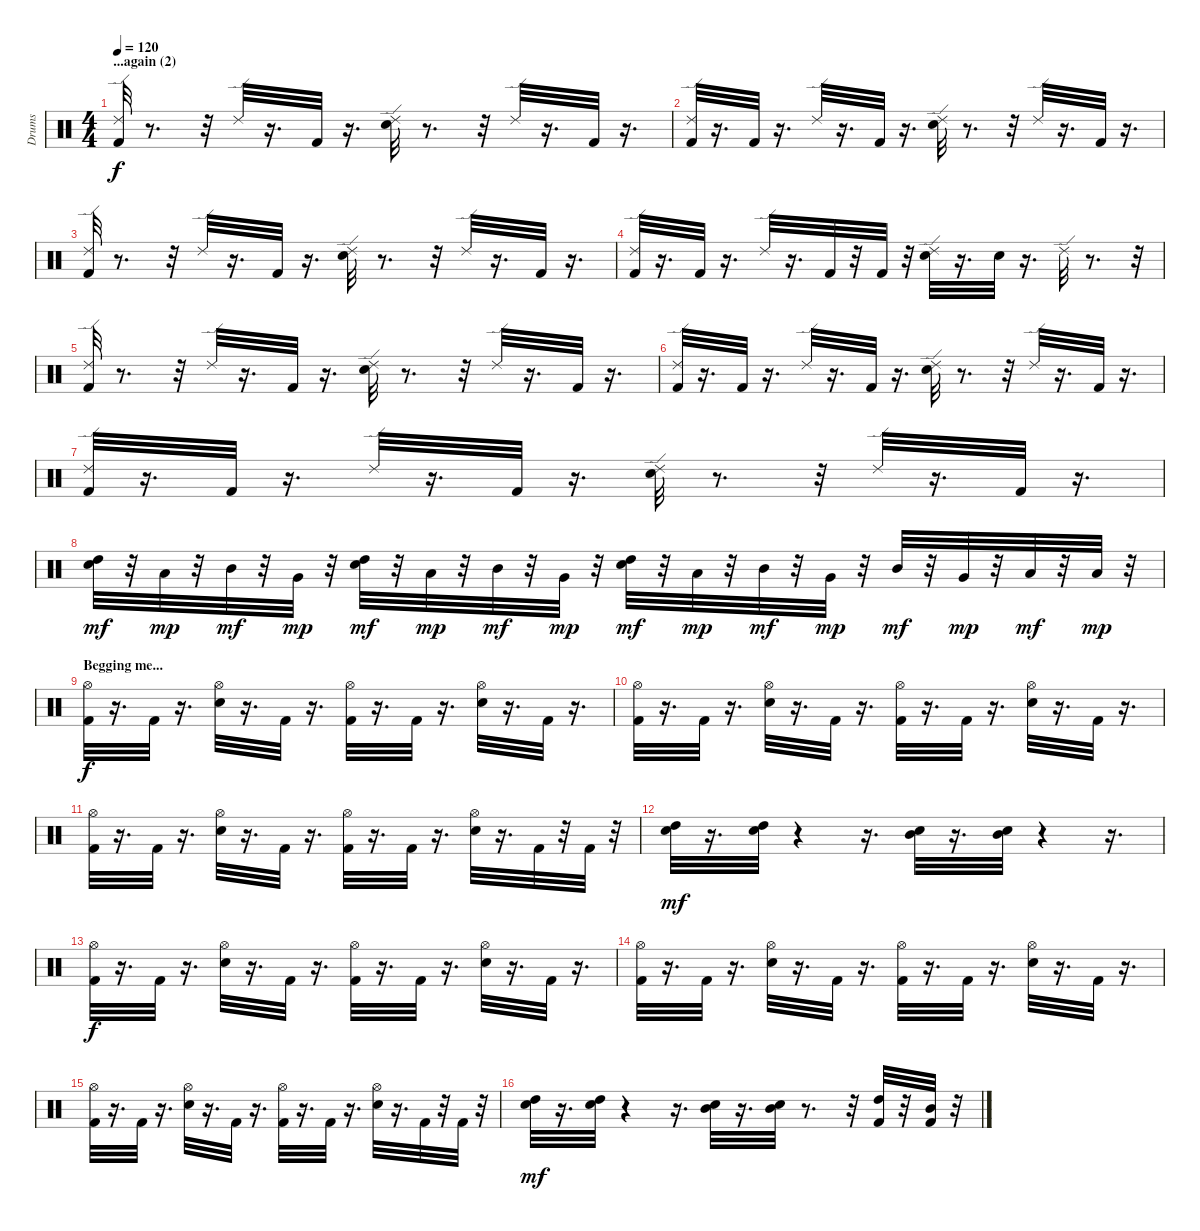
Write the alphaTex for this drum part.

\track ("Drums" "Drums") {instrument percussion}
\staff {score}
\articulation defaults
\ts (4 4)
\section ("" "...again (2)")
\tempo 120
\clef neutral
\ks c
("Kick (hit) 2" "Ride (edge) 2").32{dy f} r.8{d} r.32 "Ride (edge) 2".32 r.16{d} "Kick (hit) 2".32 r.16{d} ("Snare (hit) 2" "Ride (edge) 2").32 r.8{d} r.32 "Ride (edge) 2".32 r.16{d} "Kick (hit) 2".32 r.16{d} |
("Kick (hit) 2" "Ride (edge) 2").32 r.16{d} "Kick (hit) 2".32 r.16{d} "Ride (edge) 2".32 r.16{d} "Kick (hit) 2".32 r.16{d} ("Snare (hit) 2" "Ride (edge) 2").32 r.8{d} r.32 "Ride (edge) 2".32 r.16{d} "Kick (hit) 2".32 r.16{d} |
("Kick (hit) 2" "Ride (edge) 2").32 r.8{d} r.32 "Ride (edge) 2".32 r.16{d} "Kick (hit) 2".32 r.16{d} ("Snare (hit) 2" "Ride (edge) 2").32 r.8{d} r.32 "Ride (edge) 2".32 r.16{d} "Kick (hit) 2".32 r.16{d} |
("Kick (hit) 2" "Ride (edge) 2").32 r.16{d} "Kick (hit) 2".32 r.16{d} "Ride (edge) 2".32 r.16{d} "Kick (hit) 2".32 r.32 "Kick (hit) 2".32 r.32 ("Snare (hit) 2" "Ride (edge) 2").32 r.16{d} "Snare (hit) 2".32 r.16{d} "Ride (edge) 2".32 r.8{d} r.32 |
("Kick (hit) 2" "Ride (edge) 2").32 r.8{d} r.32 "Ride (edge) 2".32 r.16{d} "Kick (hit) 2".32 r.16{d} ("Snare (hit) 2" "Ride (edge) 2").32 r.8{d} r.32 "Ride (edge) 2".32 r.16{d} "Kick (hit) 2".32 r.16{d} |
("Kick (hit) 2" "Ride (edge) 2").32 r.16{d} "Kick (hit) 2".32 r.16{d} "Ride (edge) 2".32 r.16{d} "Kick (hit) 2".32 r.16{d} ("Snare (hit) 2" "Ride (edge) 2").32 r.8{d} r.32 "Ride (edge) 2".32 r.16{d} "Kick (hit) 2".32 r.16{d} |
("Kick (hit) 2" "Ride (edge) 2").32 r.16{d} "Kick (hit) 2".32 r.16{d} "Ride (edge) 2".32 r.16{d} "Kick (hit) 2".32 r.16{d} ("Snare (hit) 2" "Ride (edge) 2").32 r.8{d} r.32 "Ride (edge) 2".32 r.16{d} "Kick (hit) 2".32 r.16{d} |
("Snare (hit) 2" "High Tom (hit)").32{dy mf} r.32 "Low Tom (hit)".32{dy mp} r.32 "Mid Tom (hit)".32{dy mf} r.32 "Very Low Tom (hit)".32{dy mp} r.32 ("Snare (hit) 2" "High Tom (hit)").32{dy mf} r.32 "Low Tom (hit)".32{dy mp} r.32 "Mid Tom (hit)".32{dy mf} r.32 "Very Low Tom (hit)".32{dy mp} r.32 ("Snare (hit) 2" "High Tom (hit)").32{dy mf} r.32 "Low Tom (hit)".32{dy mp} r.32 "Mid Tom (hit)".32{dy mf} r.32 "Very Low Tom (hit)".32{dy mp} r.32 "Mid Tom (hit)".32{dy mf} r.32 "Very Low Tom (hit)".32{dy mp} r.32 "Low Tom (hit)".32{dy mf} r.32 "Low Floor Tom (hit)".32{dy mp} r.32 |
\section ("" "Begging me...")
("Kick (hit) 2" "Hi-Hat (open)").32{dy f} r.16{d} "Kick (hit) 2".32 r.16{d} ("Snare (hit) 2" "Hi-Hat (open)").32 r.16{d} "Kick (hit) 2".32 r.16{d} ("Kick (hit) 2" "Hi-Hat (open)").32 r.16{d} "Kick (hit) 2".32 r.16{d} ("Snare (hit) 2" "Hi-Hat (open)").32 r.16{d} "Kick (hit) 2".32 r.16{d} |
("Kick (hit) 2" "Hi-Hat (open)").32 r.16{d} "Kick (hit) 2".32 r.16{d} ("Snare (hit) 2" "Hi-Hat (open)").32 r.16{d} "Kick (hit) 2".32 r.16{d} ("Kick (hit) 2" "Hi-Hat (open)").32 r.16{d} "Kick (hit) 2".32 r.16{d} ("Snare (hit) 2" "Hi-Hat (open)").32 r.16{d} "Kick (hit) 2".32 r.16{d} |
("Kick (hit) 2" "Hi-Hat (open)").32 r.16{d} "Kick (hit) 2".32 r.16{d} ("Snare (hit) 2" "Hi-Hat (open)").32 r.16{d} "Kick (hit) 2".32 r.16{d} ("Kick (hit) 2" "Hi-Hat (open)").32 r.16{d} "Kick (hit) 2".32 r.16{d} ("Snare (hit) 2" "Hi-Hat (open)").32 r.16{d} "Kick (hit) 2".32 r.32 "Kick (hit) 2".32 r.32 |
("Snare (hit) 2" "High Tom (hit)").32{dy mf} r.16{d} ("Snare (hit) 2" "High Tom (hit)").32 r.4 r.16{d} ("Snare (hit) 2" "Mid Tom (hit)").32 r.16{d} ("Snare (hit) 2" "Mid Tom (hit)").32 r.4 r.16{d} |
("Kick (hit) 2" "Hi-Hat (open)").32{dy f} r.16{d} "Kick (hit) 2".32 r.16{d} ("Snare (hit) 2" "Hi-Hat (open)").32 r.16{d} "Kick (hit) 2".32 r.16{d} ("Kick (hit) 2" "Hi-Hat (open)").32 r.16{d} "Kick (hit) 2".32 r.16{d} ("Snare (hit) 2" "Hi-Hat (open)").32 r.16{d} "Kick (hit) 2".32 r.16{d} |
("Kick (hit) 2" "Hi-Hat (open)").32 r.16{d} "Kick (hit) 2".32 r.16{d} ("Snare (hit) 2" "Hi-Hat (open)").32 r.16{d} "Kick (hit) 2".32 r.16{d} ("Kick (hit) 2" "Hi-Hat (open)").32 r.16{d} "Kick (hit) 2".32 r.16{d} ("Snare (hit) 2" "Hi-Hat (open)").32 r.16{d} "Kick (hit) 2".32 r.16{d} |
("Kick (hit) 2" "Hi-Hat (open)").32 r.16{d} "Kick (hit) 2".32 r.16{d} ("Snare (hit) 2" "Hi-Hat (open)").32 r.16{d} "Kick (hit) 2".32 r.16{d} ("Kick (hit) 2" "Hi-Hat (open)").32 r.16{d} "Kick (hit) 2".32 r.16{d} ("Snare (hit) 2" "Hi-Hat (open)").32 r.16{d} "Kick (hit) 2".32 r.32 "Kick (hit) 2".32 r.32 |
("Snare (hit) 2" "High Tom (hit)").32{dy mf} r.16{d} ("Snare (hit) 2" "High Tom (hit)").32 r.4 r.16{d} ("Snare (hit) 2" "Mid Tom (hit)").32 r.16{d} ("Snare (hit) 2" "Mid Tom (hit)").32 r.8{d} r.32 ("Kick (hit) 2" "High Tom (hit)").32 r.32 ("Kick (hit) 2" "Mid Tom (hit)").32 r.32
